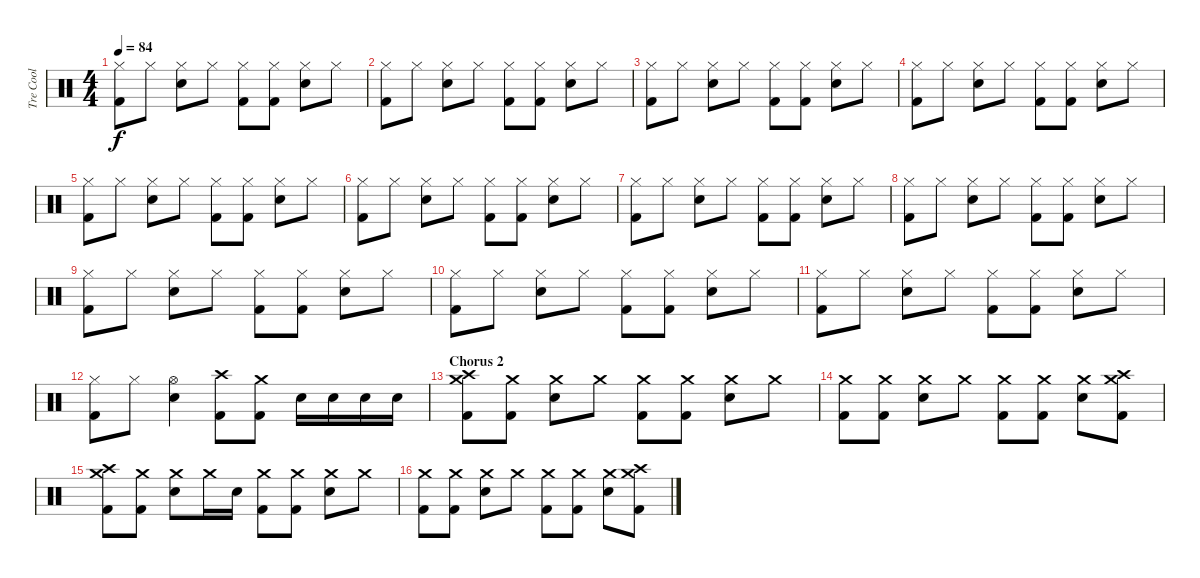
\track ("Tre Cool" "Tre Cool") {instrument percussion}
\staff {score}
\articulation defaults
\ts (4 4)
\tempo 84
\clef neutral
\ks c
("Hi-Hat (closed)" "Kick (hit) 2").8{dy f} "Hi-Hat (closed)".8 ("Hi-Hat (closed)" "Snare (hit) 2").8 "Hi-Hat (closed)".8 ("Hi-Hat (closed)" "Kick (hit) 2").8 ("Hi-Hat (closed)" "Kick (hit) 2").8 ("Hi-Hat (closed)" "Snare (hit) 2").8 "Hi-Hat (closed)".8 |
("Hi-Hat (closed)" "Kick (hit) 2").8 "Hi-Hat (closed)".8 ("Hi-Hat (closed)" "Snare (hit) 2").8 "Hi-Hat (closed)".8 ("Hi-Hat (closed)" "Kick (hit) 2").8 ("Hi-Hat (closed)" "Kick (hit) 2").8 ("Hi-Hat (closed)" "Snare (hit) 2").8 "Hi-Hat (closed)".8 |
("Hi-Hat (closed)" "Kick (hit) 2").8 "Hi-Hat (closed)".8 ("Hi-Hat (closed)" "Snare (hit) 2").8 "Hi-Hat (closed)".8 ("Hi-Hat (closed)" "Kick (hit) 2").8 ("Hi-Hat (closed)" "Kick (hit) 2").8 ("Hi-Hat (closed)" "Snare (hit) 2").8 "Hi-Hat (closed)".8 |
("Hi-Hat (closed)" "Kick (hit) 2").8 "Hi-Hat (closed)".8 ("Hi-Hat (closed)" "Snare (hit) 2").8 "Hi-Hat (closed)".8 ("Hi-Hat (closed)" "Kick (hit) 2").8 ("Hi-Hat (closed)" "Kick (hit) 2").8 ("Hi-Hat (closed)" "Snare (hit) 2").8 "Hi-Hat (closed)".8 |
("Hi-Hat (closed)" "Kick (hit) 2").8 "Hi-Hat (closed)".8 ("Hi-Hat (closed)" "Snare (hit) 2").8 "Hi-Hat (closed)".8 ("Hi-Hat (closed)" "Kick (hit) 2").8 ("Hi-Hat (closed)" "Kick (hit) 2").8 ("Hi-Hat (closed)" "Snare (hit) 2").8 "Hi-Hat (closed)".8 |
("Hi-Hat (closed)" "Kick (hit) 2").8 "Hi-Hat (closed)".8 ("Hi-Hat (closed)" "Snare (hit) 2").8 "Hi-Hat (closed)".8 ("Hi-Hat (closed)" "Kick (hit) 2").8 ("Hi-Hat (closed)" "Kick (hit) 2").8 ("Hi-Hat (closed)" "Snare (hit) 2").8 "Hi-Hat (closed)".8 |
("Hi-Hat (closed)" "Kick (hit) 2").8 "Hi-Hat (closed)".8 ("Hi-Hat (closed)" "Snare (hit) 2").8 "Hi-Hat (closed)".8 ("Hi-Hat (closed)" "Kick (hit) 2").8 ("Hi-Hat (closed)" "Kick (hit) 2").8 ("Hi-Hat (closed)" "Snare (hit) 2").8 "Hi-Hat (closed)".8 |
("Hi-Hat (closed)" "Kick (hit) 2").8 "Hi-Hat (closed)".8 ("Hi-Hat (closed)" "Snare (hit) 2").8 "Hi-Hat (closed)".8 ("Hi-Hat (closed)" "Kick (hit) 2").8 ("Hi-Hat (closed)" "Kick (hit) 2").8 ("Hi-Hat (closed)" "Snare (hit) 2").8 "Hi-Hat (closed)".8 |
("Hi-Hat (closed)" "Kick (hit) 2").8 "Hi-Hat (closed)".8 ("Hi-Hat (closed)" "Snare (hit) 2").8 "Hi-Hat (closed)".8 ("Hi-Hat (closed)" "Kick (hit) 2").8 ("Hi-Hat (closed)" "Kick (hit) 2").8 ("Hi-Hat (closed)" "Snare (hit) 2").8 "Hi-Hat (closed)".8 |
("Hi-Hat (closed)" "Kick (hit) 2").8 "Hi-Hat (closed)".8 ("Hi-Hat (closed)" "Snare (hit) 2").8 "Hi-Hat (closed)".8 ("Hi-Hat (closed)" "Kick (hit) 2").8 ("Hi-Hat (closed)" "Kick (hit) 2").8 ("Hi-Hat (closed)" "Snare (hit) 2").8 "Hi-Hat (closed)".8 |
("Hi-Hat (closed)" "Kick (hit) 2").8 "Hi-Hat (closed)".8 ("Hi-Hat (closed)" "Snare (hit) 2").8 "Hi-Hat (closed)".8 ("Hi-Hat (closed)" "Kick (hit) 2").8 ("Hi-Hat (closed)" "Kick (hit) 2").8 ("Hi-Hat (closed)" "Snare (hit) 2").8 "Hi-Hat (closed)".8 |
("Hi-Hat (closed)" "Kick (hit) 2").8 "Hi-Hat (closed)".8 ("Hi-Hat (open)" "Snare (hit) 2").4 ("Crash high (hit)" "Kick (hit) 2").8 ("Crash medium (hit)" "Kick (hit) 2").8 "Snare (hit) 2".16 "Snare (hit) 2".16 "Snare (hit) 2".16 "Snare (hit) 2".16 |
\section ("" "Chorus 2")
("Crash medium (hit)" "Crash high (hit)" "Kick (hit) 2").8 ("Crash medium (hit)" "Kick (hit) 2").8 ("Crash medium (hit)" "Snare (hit) 2").8 "Crash medium (hit)".8 ("Crash medium (hit)" "Kick (hit) 2").8 ("Crash medium (hit)" "Kick (hit) 2").8 ("Crash medium (hit)" "Snare (hit) 2").8 "Crash medium (hit)".8 |
("Crash medium (hit)" "Kick (hit) 2").8 ("Crash medium (hit)" "Kick (hit) 2").8 ("Crash medium (hit)" "Snare (hit) 2").8 "Crash medium (hit)".8 ("Crash medium (hit)" "Kick (hit) 2").8 ("Crash medium (hit)" "Kick (hit) 2").8 ("Crash medium (hit)" "Snare (hit) 2").8 ("Crash medium (hit)" "Crash high (hit)" "Kick (hit) 2").8 |
("Crash medium (hit)" "Crash high (hit)" "Kick (hit) 2").8 ("Crash medium (hit)" "Kick (hit) 2").8 ("Crash medium (hit)" "Snare (hit) 2").8 "Crash medium (hit)".16 "Snare (hit) 2".16 ("Crash medium (hit)" "Kick (hit) 2").8 ("Crash medium (hit)" "Kick (hit) 2").8 ("Crash medium (hit)" "Snare (hit) 2").8 "Crash medium (hit)".8 |
("Crash medium (hit)" "Kick (hit) 2").8 ("Crash medium (hit)" "Kick (hit) 2").8 ("Crash medium (hit)" "Snare (hit) 2").8 "Crash medium (hit)".8 ("Crash medium (hit)" "Kick (hit) 2").8 ("Crash medium (hit)" "Kick (hit) 2").8 ("Crash medium (hit)" "Snare (hit) 2").8 ("Crash medium (hit)" "Crash high (hit)" "Kick (hit) 2").8
